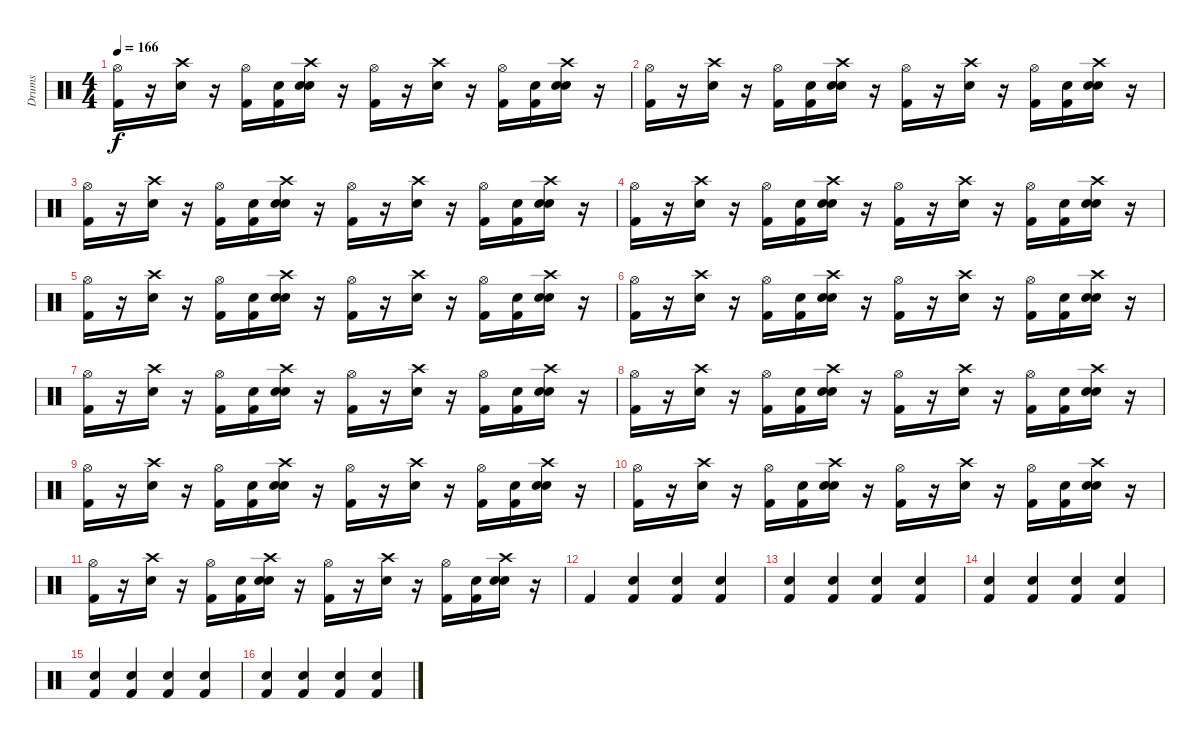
\track ("Drums" "Drums") {instrument percussion}
\staff {score}
\articulation defaults
\ts (4 4)
\tempo 166
\clef neutral
\ks c
("Hi-Hat (open)" "Kick (hit) 2").16{dy f} r.16 ("Crash high (hit)" "Electric Snare (hit)").16 r.16 ("Hi-Hat (open)" "Kick (hit) 2").16 ("Snare (hit)" "Kick (hit) 2").16 ("Snare (hit)" "Crash high (hit)" "Electric Snare (hit)").16 r.16 ("Hi-Hat (open)" "Kick (hit) 2").16 r.16 ("Electric Snare (hit)" "Crash high (hit)").16 r.16 ("Hi-Hat (open)" "Kick (hit) 2").16 ("Snare (hit)" "Kick (hit) 2").16 ("Snare (hit)" "Crash high (hit)" "Electric Snare (hit)").16 r.16 |
("Hi-Hat (open)" "Kick (hit) 2").16 r.16 ("Crash high (hit)" "Electric Snare (hit)").16 r.16 ("Hi-Hat (open)" "Kick (hit) 2").16 ("Snare (hit)" "Kick (hit) 2").16 ("Snare (hit)" "Crash high (hit)" "Electric Snare (hit)").16 r.16 ("Hi-Hat (open)" "Kick (hit) 2").16 r.16 ("Electric Snare (hit)" "Crash high (hit)").16 r.16 ("Hi-Hat (open)" "Kick (hit) 2").16 ("Snare (hit)" "Kick (hit) 2").16 ("Snare (hit)" "Crash high (hit)" "Electric Snare (hit)").16 r.16 |
("Hi-Hat (open)" "Kick (hit) 2").16 r.16 ("Crash high (hit)" "Electric Snare (hit)").16 r.16 ("Hi-Hat (open)" "Kick (hit) 2").16 ("Snare (hit)" "Kick (hit) 2").16 ("Snare (hit)" "Crash high (hit)" "Electric Snare (hit)").16 r.16 ("Hi-Hat (open)" "Kick (hit) 2").16 r.16 ("Electric Snare (hit)" "Crash high (hit)").16 r.16 ("Hi-Hat (open)" "Kick (hit) 2").16 ("Snare (hit)" "Kick (hit) 2").16 ("Snare (hit)" "Crash high (hit)" "Electric Snare (hit)").16 r.16 |
("Hi-Hat (open)" "Kick (hit) 2").16 r.16 ("Crash high (hit)" "Electric Snare (hit)").16 r.16 ("Hi-Hat (open)" "Kick (hit) 2").16 ("Snare (hit)" "Kick (hit) 2").16 ("Snare (hit)" "Crash high (hit)" "Electric Snare (hit)").16 r.16 ("Hi-Hat (open)" "Kick (hit) 2").16 r.16 ("Electric Snare (hit)" "Crash high (hit)").16 r.16 ("Hi-Hat (open)" "Kick (hit) 2").16 ("Snare (hit)" "Kick (hit) 2").16 ("Snare (hit)" "Crash high (hit)" "Electric Snare (hit)").16 r.16 |
("Hi-Hat (open)" "Kick (hit) 2").16 r.16 ("Crash high (hit)" "Electric Snare (hit)").16 r.16 ("Hi-Hat (open)" "Kick (hit) 2").16 ("Snare (hit)" "Kick (hit) 2").16 ("Snare (hit)" "Crash high (hit)" "Electric Snare (hit)").16 r.16 ("Hi-Hat (open)" "Kick (hit) 2").16 r.16 ("Electric Snare (hit)" "Crash high (hit)").16 r.16 ("Hi-Hat (open)" "Kick (hit) 2").16 ("Snare (hit)" "Kick (hit) 2").16 ("Snare (hit)" "Crash high (hit)" "Electric Snare (hit)").16 r.16 |
("Hi-Hat (open)" "Kick (hit) 2").16 r.16 ("Crash high (hit)" "Electric Snare (hit)").16 r.16 ("Hi-Hat (open)" "Kick (hit) 2").16 ("Snare (hit)" "Kick (hit) 2").16 ("Snare (hit)" "Crash high (hit)" "Electric Snare (hit)").16 r.16 ("Hi-Hat (open)" "Kick (hit) 2").16 r.16 ("Electric Snare (hit)" "Crash high (hit)").16 r.16 ("Hi-Hat (open)" "Kick (hit) 2").16 ("Snare (hit)" "Kick (hit) 2").16 ("Snare (hit)" "Crash high (hit)" "Electric Snare (hit)").16 r.16 |
("Hi-Hat (open)" "Kick (hit) 2").16 r.16 ("Crash high (hit)" "Electric Snare (hit)").16 r.16 ("Hi-Hat (open)" "Kick (hit) 2").16 ("Snare (hit)" "Kick (hit) 2").16 ("Snare (hit)" "Crash high (hit)" "Electric Snare (hit)").16 r.16 ("Hi-Hat (open)" "Kick (hit) 2").16 r.16 ("Electric Snare (hit)" "Crash high (hit)").16 r.16 ("Hi-Hat (open)" "Kick (hit) 2").16 ("Snare (hit)" "Kick (hit) 2").16 ("Snare (hit)" "Crash high (hit)" "Electric Snare (hit)").16 r.16 |
("Hi-Hat (open)" "Kick (hit) 2").16 r.16 ("Crash high (hit)" "Electric Snare (hit)").16 r.16 ("Hi-Hat (open)" "Kick (hit) 2").16 ("Snare (hit)" "Kick (hit) 2").16 ("Snare (hit)" "Crash high (hit)" "Electric Snare (hit)").16 r.16 ("Hi-Hat (open)" "Kick (hit) 2").16 r.16 ("Electric Snare (hit)" "Crash high (hit)").16 r.16 ("Hi-Hat (open)" "Kick (hit) 2").16 ("Snare (hit)" "Kick (hit) 2").16 ("Snare (hit)" "Crash high (hit)" "Electric Snare (hit)").16 r.16 |
("Hi-Hat (open)" "Kick (hit) 2").16 r.16 ("Crash high (hit)" "Electric Snare (hit)").16 r.16 ("Hi-Hat (open)" "Kick (hit) 2").16 ("Snare (hit)" "Kick (hit) 2").16 ("Snare (hit)" "Crash high (hit)" "Electric Snare (hit)").16 r.16 ("Hi-Hat (open)" "Kick (hit) 2").16 r.16 ("Electric Snare (hit)" "Crash high (hit)").16 r.16 ("Hi-Hat (open)" "Kick (hit) 2").16 ("Snare (hit)" "Kick (hit) 2").16 ("Snare (hit)" "Crash high (hit)" "Electric Snare (hit)").16 r.16 |
("Hi-Hat (open)" "Kick (hit) 2").16 r.16 ("Crash high (hit)" "Electric Snare (hit)").16 r.16 ("Hi-Hat (open)" "Kick (hit) 2").16 ("Snare (hit)" "Kick (hit) 2").16 ("Snare (hit)" "Crash high (hit)" "Electric Snare (hit)").16 r.16 ("Hi-Hat (open)" "Kick (hit) 2").16 r.16 ("Electric Snare (hit)" "Crash high (hit)").16 r.16 ("Hi-Hat (open)" "Kick (hit) 2").16 ("Snare (hit)" "Kick (hit) 2").16 ("Snare (hit)" "Crash high (hit)" "Electric Snare (hit)").16 r.16 |
("Hi-Hat (open)" "Kick (hit) 2").16 r.16 ("Crash high (hit)" "Electric Snare (hit)").16 r.16 ("Hi-Hat (open)" "Kick (hit) 2").16 ("Snare (hit)" "Kick (hit) 2").16 ("Snare (hit)" "Crash high (hit)" "Electric Snare (hit)").16 r.16 ("Hi-Hat (open)" "Kick (hit) 2").16 r.16 ("Electric Snare (hit)" "Crash high (hit)").16 r.16 ("Hi-Hat (open)" "Kick (hit) 2").16 ("Snare (hit)" "Kick (hit) 2").16 ("Snare (hit)" "Crash high (hit)" "Electric Snare (hit)").16 r.16 |
"Kick (hit) 2".4 ("Snare (hit)" "Kick (hit) 2").4 ("Snare (hit)" "Kick (hit) 2").4 ("Snare (hit)" "Kick (hit) 2").4 |
("Snare (hit)" "Kick (hit) 2").4 ("Snare (hit)" "Kick (hit) 2").4 ("Snare (hit)" "Kick (hit) 2").4 ("Snare (hit)" "Kick (hit) 2").4 |
("Snare (hit)" "Kick (hit) 2").4 ("Snare (hit)" "Kick (hit) 2").4 ("Snare (hit)" "Kick (hit) 2").4 ("Snare (hit)" "Kick (hit) 2").4 |
("Snare (hit)" "Kick (hit) 2").4 ("Snare (hit)" "Kick (hit) 2").4 ("Snare (hit)" "Kick (hit) 2").4 ("Snare (hit)" "Kick (hit) 2").4 |
("Snare (hit)" "Kick (hit) 2").4 ("Snare (hit)" "Kick (hit) 2").4 ("Snare (hit)" "Kick (hit) 2").4 ("Snare (hit)" "Kick (hit) 2").4
